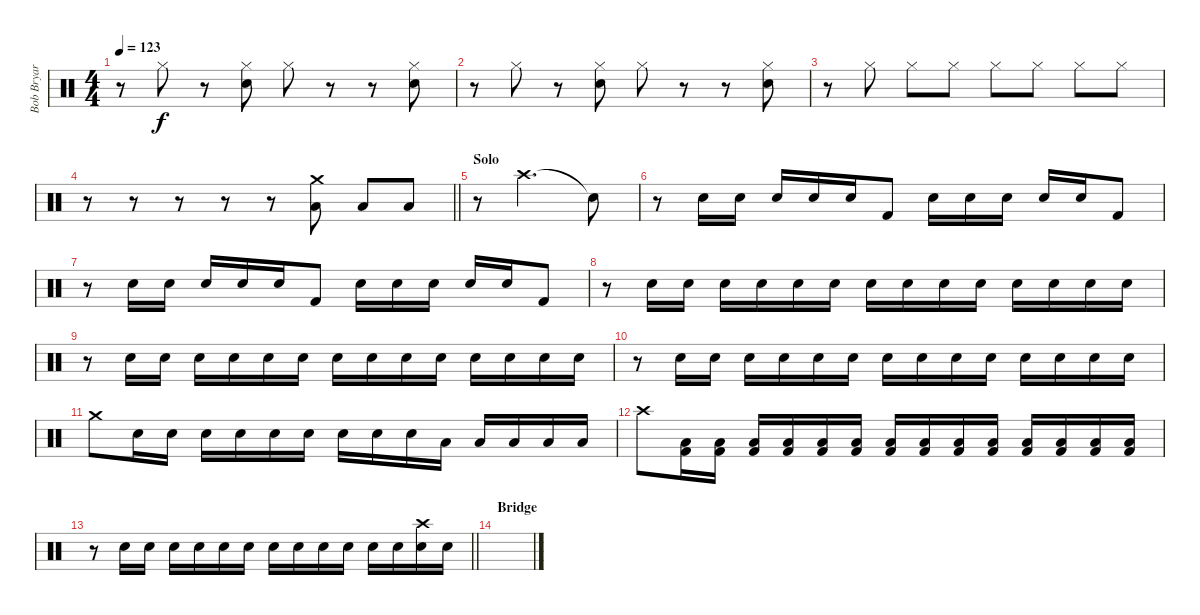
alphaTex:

\track ("Bob Bryar" "Bob Bryar") {instrument percussion}
\staff {score}
\articulation defaults
\ts (4 4)
\tempo 123
\clef neutral
\ks c
r.8{dy f} "Hi-Hat (closed)".8 r.8 ("Hi-Hat (closed)" "Hand Clap (hit)").8 "Hi-Hat (closed)".8 r.8 r.8 ("Hi-Hat (closed)" "Hand Clap (hit)").8 |
r.8 "Hi-Hat (closed)".8 r.8 ("Hi-Hat (closed)" "Hand Clap (hit)").8 "Hi-Hat (closed)".8 r.8 r.8 ("Hi-Hat (closed)" "Hand Clap (hit)").8 |
r.8 "Hi-Hat (closed)".8 "Hi-Hat (closed)".8 "Hi-Hat (closed)".8 "Hi-Hat (closed)".8 "Hi-Hat (closed)".8 "Hi-Hat (closed)".8 "Hi-Hat (closed)".8 |
\barLineRight lightlight
r.8 r.8 r.8 r.8 r.8 ("Crash medium (hit)" "Low Floor Tom (hit)").8 "Low Floor Tom (hit)".8 "Low Floor Tom (hit)".8 |
\section ("" "Solo")
r.8 "Crash high (hit)".2{d} "Snare (hit)"{t}.8 |
r.8 "Snare (hit) 2".16 "Snare (hit) 2".16 "Snare (hit) 2".16 "Snare (hit) 2".16 "Snare (hit) 2".16 "Kick (hit) 2".8 "Snare (hit) 2".16 "Snare (hit) 2".16 "Snare (hit) 2".16 "Snare (hit) 2".16 "Snare (hit) 2".16 "Kick (hit) 2".8 |
r.8 "Snare (hit) 2".16 "Snare (hit) 2".16 "Snare (hit) 2".16 "Snare (hit) 2".16 "Snare (hit) 2".16 "Kick (hit) 2".8 "Snare (hit) 2".16 "Snare (hit) 2".16 "Snare (hit) 2".16 "Snare (hit) 2".16 "Snare (hit) 2".16 "Kick (hit) 2".8 |
r.8 "Snare (hit) 2".16 "Snare (hit) 2".16 "Snare (hit) 2".16 "Snare (hit) 2".16 "Snare (hit) 2".16 "Snare (hit) 2".16 "Snare (hit) 2".16 "Snare (hit) 2".16 "Snare (hit) 2".16 "Snare (hit) 2".16 "Snare (hit) 2".16 "Snare (hit) 2".16 "Snare (hit) 2".16 "Snare (hit) 2".16 |
r.8 "Snare (hit) 2".16 "Snare (hit) 2".16 "Snare (hit) 2".16 "Snare (hit) 2".16 "Snare (hit) 2".16 "Snare (hit) 2".16 "Snare (hit) 2".16 "Snare (hit) 2".16 "Snare (hit) 2".16 "Snare (hit) 2".16 "Snare (hit) 2".16 "Snare (hit) 2".16 "Snare (hit) 2".16 "Snare (hit) 2".16 |
r.8 "Snare (hit) 2".16 "Snare (hit) 2".16 "Snare (hit) 2".16 "Snare (hit) 2".16 "Snare (hit) 2".16 "Snare (hit) 2".16 "Snare (hit) 2".16 "Snare (hit) 2".16 "Snare (hit) 2".16 "Snare (hit) 2".16 "Snare (hit) 2".16 "Snare (hit) 2".16 "Snare (hit) 2".16 "Snare (hit) 2".16 |
"Crash medium (hit)".8 "Snare (hit) 2".16 "Snare (hit) 2".16 "Snare (hit) 2".16 "Snare (hit) 2".16 "Snare (hit) 2".16 "Electric Snare (hit)".16 "Electric Snare (hit)".16 "Electric Snare (hit)".16 "Electric Snare (hit)".16 "Low Floor Tom (hit)".16 "Low Floor Tom (hit)".16 "Low Floor Tom (hit)".16 "Low Floor Tom (hit)".16 "Low Floor Tom (hit)".16 |
"Crash high (hit)".8 ("Low Floor Tom (hit)" "Kick (hit) 2").16 ("Low Floor Tom (hit)" "Kick (hit) 2").16 ("Low Floor Tom (hit)" "Kick (hit) 2").16 ("Low Floor Tom (hit)" "Kick (hit) 2").16 ("Low Floor Tom (hit)" "Kick (hit) 2").16 ("Low Floor Tom (hit)" "Kick (hit) 2").16 ("Low Floor Tom (hit)" "Kick (hit) 2").16 ("Low Floor Tom (hit)" "Kick (hit) 2").16 ("Low Floor Tom (hit)" "Kick (hit) 2").16 ("Low Floor Tom (hit)" "Kick (hit) 2").16 ("Low Floor Tom (hit)" "Kick (hit) 2").16 ("Low Floor Tom (hit)" "Kick (hit) 2").16 ("Low Floor Tom (hit)" "Kick (hit) 2").16 ("Low Floor Tom (hit)" "Kick (hit) 2").16 |
\barLineRight lightlight
r.8 "Snare (hit) 2".16 "Snare (hit) 2".16 "Snare (hit) 2".16 "Snare (hit) 2".16 "Snare (hit) 2".16 "Snare (hit) 2".16 "Snare (hit) 2".16 "Snare (hit) 2".16 "Snare (hit) 2".16 "Snare (hit) 2".16 "Snare (hit) 2".16 "Snare (hit) 2".16 ("Crash high (hit)" "Snare (hit) 2").16 "Snare (hit) 2".16 |
\section ("" "Bridge")
